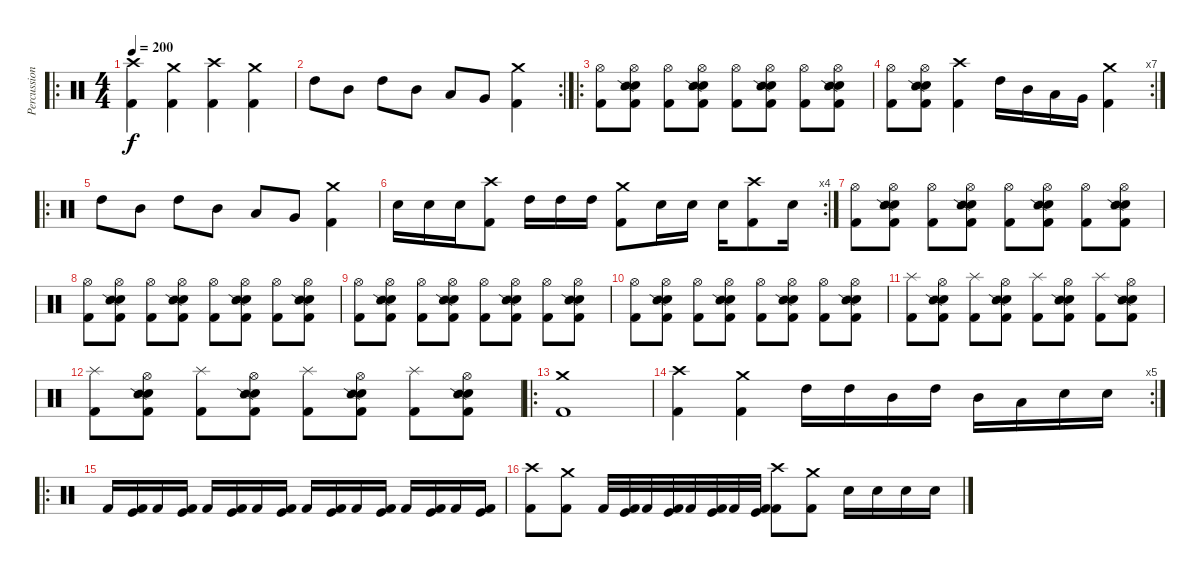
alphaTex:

\track ("Percussion" "Percussion") {instrument percussion}
\staff {score}
\articulation defaults
\ro
\ts (4 4)
\tempo 200
\clef neutral
\ks c
("Crash high (hit)" "Kick (hit) 2").4{dy f} ("Crash medium (hit)" "Kick (hit) 2").4 ("Crash high (hit)" "Kick (hit) 2").4 ("Crash medium (hit)" "Kick (hit) 2").4 |
\rc 2 "High Tom (hit)".8 "Mid Tom (hit)".8 "High Tom (hit)".8 "Mid Tom (hit)".8 "Low Tom (hit)".8 "Very Low Tom (hit)".8
("Crash medium (hit)" "Kick (hit) 2").4 |
\ro
("Hi-Hat (open)" "Kick (hit) 2").8 ("Hi-Hat (open)" "Electric Snare (hit)" "Snare (side stick) 2" "Kick (hit) 2").8 ("Hi-Hat (open)" "Kick (hit) 2").8 ("Hi-Hat (open)" "Electric Snare (hit)" "Snare (side stick) 2" "Kick (hit) 2").8 ("Hi-Hat (open)" "Kick (hit) 2").8 ("Hi-Hat (open)" "Electric Snare (hit)" "Snare (side stick) 2" "Kick (hit) 2").8 ("Hi-Hat (open)" "Kick (hit) 2").8 ("Hi-Hat (open)" "Electric Snare (hit)" "Snare (side stick) 2" "Kick (hit) 2").8 |
\rc 7
("Hi-Hat (open)" "Kick (hit) 2").8 ("Hi-Hat (open)" "Electric Snare (hit)" "Snare (side stick) 2" "Kick (hit) 2").8 ("Crash high (hit)" "Kick (hit) 2").4 "High Tom (hit)".16 "Mid Tom (hit)".16 "Low Tom (hit)".16 "Very Low Tom (hit)".16 ("Crash medium (hit)" "Kick (hit) 2").4 |
\ro "High Tom (hit)".8 "Mid Tom (hit)".8 "High Tom (hit)".8 "Mid Tom (hit)".8 "Low Tom (hit)".8 "Very Low Tom (hit)".8
("Crash medium (hit)" "Kick (hit) 2").4 |
\rc 4 "Electric Snare (hit)".16 "Electric Snare (hit)".16 "Electric Snare (hit)".16
("Crash high (hit)" "Kick (hit) 2").8 "High Tom (hit)".16 "High Tom (hit)".16 "High Tom (hit)".16 ("Crash medium (hit)" "Kick (hit) 2").8 "Electric Snare (hit)".16 "Electric Snare (hit)".16 "Electric Snare (hit)".16 ("Crash high (hit)" "Kick (hit) 2").8 "Electric Snare (hit)".16 |
("Hi-Hat (open)" "Kick (hit) 2").8 ("Hi-Hat (open)" "Electric Snare (hit)" "Snare (side stick) 2" "Kick (hit) 2").8 ("Hi-Hat (open)" "Kick (hit) 2").8 ("Hi-Hat (open)" "Electric Snare (hit)" "Snare (side stick) 2" "Kick (hit) 2").8 ("Hi-Hat (open)" "Kick (hit) 2").8 ("Hi-Hat (open)" "Electric Snare (hit)" "Snare (side stick) 2" "Kick (hit) 2").8 ("Hi-Hat (open)" "Kick (hit) 2").8 ("Hi-Hat (open)" "Electric Snare (hit)" "Snare (side stick) 2" "Kick (hit) 2").8 |
("Hi-Hat (open)" "Kick (hit) 2").8 ("Hi-Hat (open)" "Electric Snare (hit)" "Snare (side stick) 2" "Kick (hit) 2").8 ("Hi-Hat (open)" "Kick (hit) 2").8 ("Hi-Hat (open)" "Electric Snare (hit)" "Snare (side stick) 2" "Kick (hit) 2").8 ("Hi-Hat (open)" "Kick (hit) 2").8 ("Hi-Hat (open)" "Electric Snare (hit)" "Snare (side stick) 2" "Kick (hit) 2").8 ("Hi-Hat (open)" "Kick (hit) 2").8 ("Hi-Hat (open)" "Electric Snare (hit)" "Snare (side stick) 2" "Kick (hit) 2").8 |
("Hi-Hat (open)" "Kick (hit) 2").8 ("Hi-Hat (open)" "Electric Snare (hit)" "Snare (side stick) 2" "Kick (hit) 2").8 ("Hi-Hat (open)" "Kick (hit) 2").8 ("Hi-Hat (open)" "Electric Snare (hit)" "Snare (side stick) 2" "Kick (hit) 2").8 ("Hi-Hat (open)" "Kick (hit) 2").8 ("Hi-Hat (open)" "Electric Snare (hit)" "Snare (side stick) 2" "Kick (hit) 2").8 ("Hi-Hat (open)" "Kick (hit) 2").8 ("Hi-Hat (open)" "Electric Snare (hit)" "Snare (side stick) 2" "Kick (hit) 2").8 |
("Hi-Hat (open)" "Kick (hit) 2").8 ("Hi-Hat (open)" "Electric Snare (hit)" "Snare (side stick) 2" "Kick (hit) 2").8 ("Hi-Hat (open)" "Kick (hit) 2").8 ("Hi-Hat (open)" "Electric Snare (hit)" "Snare (side stick) 2" "Kick (hit) 2").8 ("Hi-Hat (open)" "Kick (hit) 2").8 ("Hi-Hat (open)" "Electric Snare (hit)" "Snare (side stick) 2" "Kick (hit) 2").8 ("Hi-Hat (open)" "Kick (hit) 2").8 ("Hi-Hat (open)" "Electric Snare (hit)" "Snare (side stick) 2" "Kick (hit) 2").8 |
("Splash (hit)" "Kick (hit) 2").8 ("Hi-Hat (open)" "Electric Snare (hit)" "Snare (side stick) 2" "Kick (hit) 2").8 ("Splash (hit)" "Kick (hit) 2").8 ("Hi-Hat (open)" "Electric Snare (hit)" "Snare (side stick) 2" "Kick (hit) 2").8 ("Splash (hit)" "Kick (hit) 2").8 ("Hi-Hat (open)" "Electric Snare (hit)" "Snare (side stick) 2" "Kick (hit) 2").8 ("Splash (hit)" "Kick (hit) 2").8 ("Hi-Hat (open)" "Electric Snare (hit)" "Snare (side stick) 2" "Kick (hit) 2").8 |
("Splash (hit)" "Kick (hit) 2").8 ("Hi-Hat (open)" "Electric Snare (hit)" "Snare (side stick) 2" "Kick (hit) 2").8 ("Splash (hit)" "Kick (hit) 2").8 ("Hi-Hat (open)" "Electric Snare (hit)" "Snare (side stick) 2" "Kick (hit) 2").8 ("Splash (hit)" "Kick (hit) 2").8 ("Hi-Hat (open)" "Electric Snare (hit)" "Snare (side stick) 2" "Kick (hit) 2").8 ("Splash (hit)" "Kick (hit) 2").8 ("Hi-Hat (open)" "Electric Snare (hit)" "Snare (side stick) 2" "Kick (hit) 2").8 |
\ro
("Crash medium (hit)" "Kick (hit) 2").1 |
\rc 5
("Crash high (hit)" "Kick (hit) 2").4 ("Crash medium (hit)" "Kick (hit) 2").4 "High Tom (hit)".16 "High Tom (hit)".16 "Mid Tom (hit)".16 "High Tom (hit)".16 "Mid Tom (hit)".16 "Low Tom (hit)".16 "Electric Snare (hit)".16 "Electric Snare (hit)".16 |
\ro "Kick (hit) 2".16
("Kick (hit)" "Kick (hit) 2").16 "Kick (hit) 2".16 ("Kick (hit)" "Kick (hit) 2").16 "Kick (hit) 2".16 ("Kick (hit)" "Kick (hit) 2").16 "Kick (hit) 2".16 ("Kick (hit)" "Kick (hit) 2").16 "Kick (hit) 2".16 ("Kick (hit)" "Kick (hit) 2").16 "Kick (hit) 2".16 ("Kick (hit)" "Kick (hit) 2").16 "Kick (hit) 2".16 ("Kick (hit)" "Kick (hit) 2").16 "Kick (hit) 2".16 ("Kick (hit)" "Kick (hit) 2").16 |
("Crash high (hit)" "Kick (hit) 2").8 ("Crash medium (hit)" "Kick (hit) 2").8 "Kick (hit) 2".32 ("Kick (hit)" "Kick (hit) 2").32 "Kick (hit) 2".32 ("Kick (hit)" "Kick (hit) 2").32 "Kick (hit) 2".32 ("Kick (hit)" "Kick (hit) 2").32 "Kick (hit) 2".32 ("Kick (hit)" "Kick (hit) 2").32 ("Crash high (hit)" "Kick (hit) 2").8 ("Crash medium (hit)" "Kick (hit) 2").8 "Electric Snare (hit)".16 "Electric Snare (hit)".16 "Electric Snare (hit)".16 "Electric Snare (hit)".16
